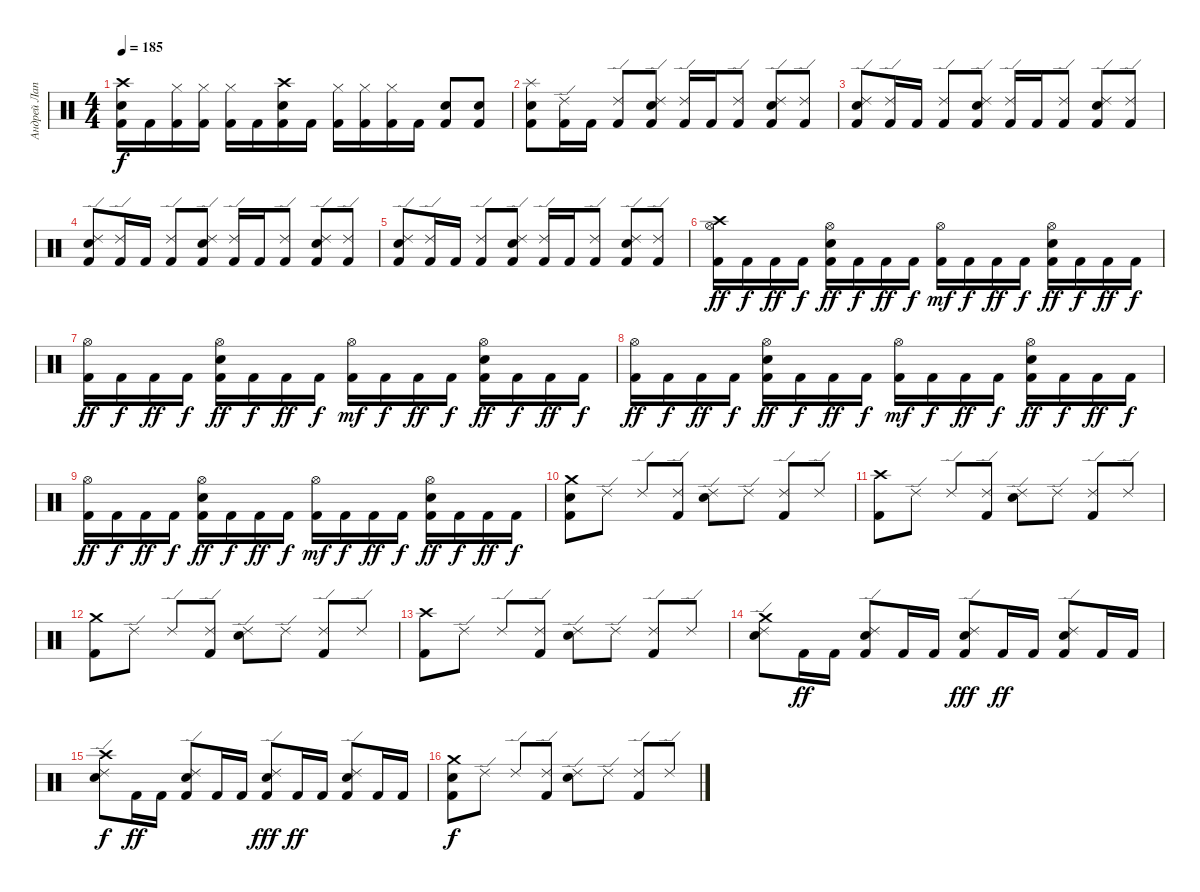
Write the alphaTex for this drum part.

\track ("Андрей Лаптев" "Андрей Лап") {instrument percussion}
\staff {score}
\articulation defaults
\ts (4 4)
\tempo 185
\clef neutral
\ks c
("Kick (hit) 2" "Crash high (hit)" "Electric Snare (hit)").16{dy f} "Kick (hit) 2".16 ("Kick (hit) 2" "Hi-Hat (closed)").16 ("Kick (hit) 2" "Hi-Hat (closed)").16 ("Kick (hit) 2" "Hi-Hat (closed)").16 "Kick (hit) 2".16 ("Kick (hit) 2" "Crash high (hit)" "Electric Snare (hit)").16 "Kick (hit) 2".16 ("Kick (hit) 2" "Hi-Hat (closed)").16 ("Kick (hit) 2" "Hi-Hat (closed)").16 ("Kick (hit) 2" "Hi-Hat (closed)").16 "Kick (hit) 2".16 ("Kick (hit) 2" "Electric Snare (hit)").8 ("Kick (hit) 2" "Electric Snare (hit)").8 |
("Splash (hit)" "Electric Snare (hit)" "Kick (hit) 2").8 ("Kick (hit) 2" "Ride (edge) 2").16 "Kick (hit) 2".16 ("Ride (edge) 2" "Kick (hit) 2").8 ("Ride (edge) 2" "Electric Snare (hit)" "Kick (hit) 2").8 ("Kick (hit) 2" "Ride (edge) 2").16 "Kick (hit) 2".16 ("Ride (edge) 2" "Kick (hit) 2").8 ("Ride (edge) 2" "Electric Snare (hit)" "Kick (hit) 2").8 ("Ride (edge) 2" "Kick (hit) 2").8 |
("Ride (edge) 2" "Electric Snare (hit)" "Kick (hit) 2").8 ("Kick (hit) 2" "Ride (edge) 2").16 "Kick (hit) 2".16 ("Ride (edge) 2" "Kick (hit) 2").8 ("Ride (edge) 2" "Electric Snare (hit)" "Kick (hit) 2").8 ("Kick (hit) 2" "Ride (edge) 2").16 "Kick (hit) 2".16 ("Ride (edge) 2" "Kick (hit) 2").8 ("Ride (edge) 2" "Electric Snare (hit)" "Kick (hit) 2").8 ("Ride (edge) 2" "Kick (hit) 2").8 |
("Ride (edge) 2" "Electric Snare (hit)" "Kick (hit) 2").8 ("Kick (hit) 2" "Ride (edge) 2").16 "Kick (hit) 2".16 ("Ride (edge) 2" "Kick (hit) 2").8 ("Ride (edge) 2" "Electric Snare (hit)" "Kick (hit) 2").8 ("Kick (hit) 2" "Ride (edge) 2").16 "Kick (hit) 2".16 ("Ride (edge) 2" "Kick (hit) 2").8 ("Ride (edge) 2" "Electric Snare (hit)" "Kick (hit) 2").8 ("Ride (edge) 2" "Kick (hit) 2").8 |
("Ride (edge) 2" "Electric Snare (hit)" "Kick (hit) 2").8 ("Kick (hit) 2" "Ride (edge) 2").16 "Kick (hit) 2".16 ("Ride (edge) 2" "Kick (hit) 2").8 ("Ride (edge) 2" "Electric Snare (hit)" "Kick (hit) 2").8 ("Kick (hit) 2" "Ride (edge) 2").16 "Kick (hit) 2".16 ("Ride (edge) 2" "Kick (hit) 2").8 ("Ride (edge) 2" "Electric Snare (hit)" "Kick (hit) 2").8 ("Ride (edge) 2" "Kick (hit) 2").8 |
("Crash high (hit)" "Kick (hit) 2" "Hi-Hat (open)").16{dy ff} "Kick (hit) 2".16{dy f} "Kick (hit) 2".16{dy ff} "Kick (hit) 2".16{dy f} ("Hi-Hat (open)" "Electric Snare (hit)" "Kick (hit) 2").16{dy ff} "Kick (hit) 2".16{dy f} "Kick (hit) 2".16{dy ff} "Kick (hit) 2".16{dy f} ("Kick (hit) 2" "Hi-Hat (open)").16{dy mf} "Kick (hit) 2".16{dy f} "Kick (hit) 2".16{dy ff} "Kick (hit) 2".16{dy f} ("Electric Snare (hit)" "Hi-Hat (open)" "Kick (hit) 2").16{dy ff} "Kick (hit) 2".16{dy f} "Kick (hit) 2".16{dy ff} "Kick (hit) 2".16{dy f} |
("Kick (hit) 2" "Hi-Hat (open)").16{dy ff} "Kick (hit) 2".16{dy f} "Kick (hit) 2".16{dy ff} "Kick (hit) 2".16{dy f} ("Hi-Hat (open)" "Electric Snare (hit)" "Kick (hit) 2").16{dy ff} "Kick (hit) 2".16{dy f} "Kick (hit) 2".16{dy ff} "Kick (hit) 2".16{dy f} ("Kick (hit) 2" "Hi-Hat (open)").16{dy mf} "Kick (hit) 2".16{dy f} "Kick (hit) 2".16{dy ff} "Kick (hit) 2".16{dy f} ("Electric Snare (hit)" "Hi-Hat (open)" "Kick (hit) 2").16{dy ff} "Kick (hit) 2".16{dy f} "Kick (hit) 2".16{dy ff} "Kick (hit) 2".16{dy f} |
("Kick (hit) 2" "Hi-Hat (open)").16{dy ff} "Kick (hit) 2".16{dy f} "Kick (hit) 2".16{dy ff} "Kick (hit) 2".16{dy f} ("Hi-Hat (open)" "Electric Snare (hit)" "Kick (hit) 2").16{dy ff} "Kick (hit) 2".16{dy f} "Kick (hit) 2".16{dy ff} "Kick (hit) 2".16{dy f} ("Kick (hit) 2" "Hi-Hat (open)").16{dy mf} "Kick (hit) 2".16{dy f} "Kick (hit) 2".16{dy ff} "Kick (hit) 2".16{dy f} ("Electric Snare (hit)" "Hi-Hat (open)" "Kick (hit) 2").16{dy ff} "Kick (hit) 2".16{dy f} "Kick (hit) 2".16{dy ff} "Kick (hit) 2".16{dy f} |
("Kick (hit) 2" "Hi-Hat (open)").16{dy ff} "Kick (hit) 2".16{dy f} "Kick (hit) 2".16{dy ff} "Kick (hit) 2".16{dy f} ("Hi-Hat (open)" "Electric Snare (hit)" "Kick (hit) 2").16{dy ff} "Kick (hit) 2".16{dy f} "Kick (hit) 2".16{dy ff} "Kick (hit) 2".16{dy f} ("Kick (hit) 2" "Hi-Hat (open)").16{dy mf} "Kick (hit) 2".16{dy f} "Kick (hit) 2".16{dy ff} "Kick (hit) 2".16{dy f} ("Electric Snare (hit)" "Hi-Hat (open)" "Kick (hit) 2").16{dy ff} "Kick (hit) 2".16{dy f} "Kick (hit) 2".16{dy ff} "Kick (hit) 2".16{dy f} |
("Electric Snare (hit)" "Crash medium (hit)" "Kick (hit) 2").8 "Ride (edge) 2".8 "Ride (edge) 2".8 ("Ride (edge) 2" "Kick (hit) 2").8 ("Ride (edge) 2" "Electric Snare (hit)").8 "Ride (edge) 2".8 ("Ride (edge) 2" "Kick (hit) 2").8 "Ride (edge) 2".8 |
("Kick (hit) 2" "Crash high (hit)").8 "Ride (edge) 2".8 "Ride (edge) 2".8 ("Ride (edge) 2" "Kick (hit) 2").8 ("Ride (edge) 2" "Electric Snare (hit)").8 "Ride (edge) 2".8 ("Ride (edge) 2" "Kick (hit) 2").8 "Ride (edge) 2".8 |
("Crash medium (hit)" "Kick (hit) 2").8 "Ride (edge) 2".8 "Ride (edge) 2".8 ("Ride (edge) 2" "Kick (hit) 2").8 ("Ride (edge) 2" "Electric Snare (hit)").8 "Ride (edge) 2".8 ("Ride (edge) 2" "Kick (hit) 2").8 "Ride (edge) 2".8 |
("Kick (hit) 2" "Crash high (hit)").8 "Ride (edge) 2".8 "Ride (edge) 2".8 ("Ride (edge) 2" "Kick (hit) 2").8 ("Ride (edge) 2" "Electric Snare (hit)").8 "Ride (edge) 2".8 ("Ride (edge) 2" "Kick (hit) 2").8 "Ride (edge) 2".8 |
("Ride (edge) 2" "Crash medium (hit)" "Electric Snare (hit)").8 "Kick (hit) 2".16{dy ff} "Kick (hit) 2".16 ("Kick (hit) 2" "Electric Snare (hit)" "Ride (edge) 2").8 "Kick (hit) 2".16 "Kick (hit) 2".16 ("Kick (hit) 2" "Ride (edge) 2" "Electric Snare (hit)").8{dy fff} "Kick (hit) 2".16{dy ff} "Kick (hit) 2".16 ("Ride (edge) 2" "Electric Snare (hit)" "Kick (hit) 2").8 "Kick (hit) 2".16 "Kick (hit) 2".16 |
("Ride (edge) 2" "Crash high (hit)" "Electric Snare (hit)").8{dy f} "Kick (hit) 2".16{dy ff} "Kick (hit) 2".16 ("Kick (hit) 2" "Electric Snare (hit)" "Ride (edge) 2").8 "Kick (hit) 2".16 "Kick (hit) 2".16 ("Kick (hit) 2" "Ride (edge) 2" "Electric Snare (hit)").8{dy fff} "Kick (hit) 2".16{dy ff} "Kick (hit) 2".16 ("Ride (edge) 2" "Electric Snare (hit)" "Kick (hit) 2").8 "Kick (hit) 2".16 "Kick (hit) 2".16 |
("Electric Snare (hit)" "Crash medium (hit)" "Kick (hit) 2").8{dy f} "Ride (edge) 2".8 "Ride (edge) 2".8 ("Ride (edge) 2" "Kick (hit) 2").8 ("Ride (edge) 2" "Electric Snare (hit)").8 "Ride (edge) 2".8 ("Ride (edge) 2" "Kick (hit) 2").8 "Ride (edge) 2".8
